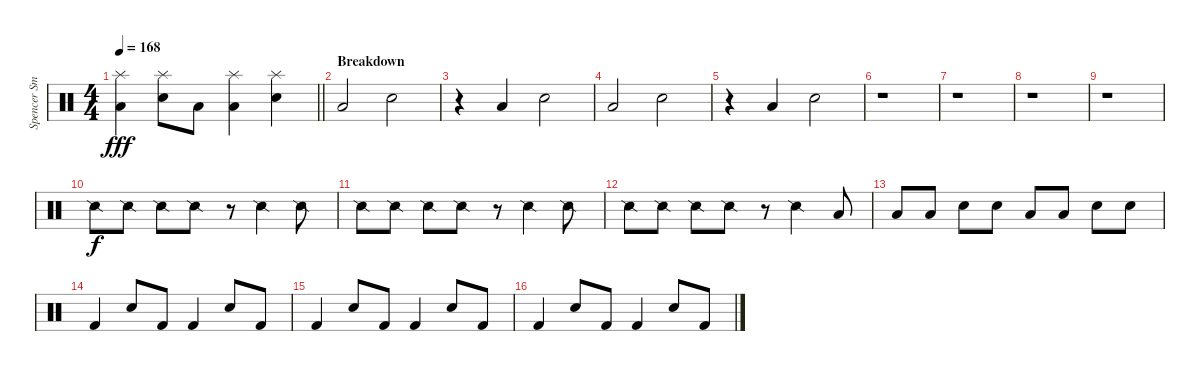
\track ("Spencer Smith" "Spencer Sm") {instrument percussion}
\staff {score}
\articulation defaults
\ts (4 4)
\tempo 168
\clef neutral
\barLineRight lightlight
\ks c
("Splash (hit)" "Low Floor Tom (hit)").4{dy fff} ("Splash (hit)" "Electric Snare (hit)").8 "Low Floor Tom (hit)".8 ("Splash (hit)" "Low Floor Tom (hit)").4 ("Splash (hit)" "Electric Snare (hit)").4 |
\section ("" "Breakdown")
"Low Floor Tom (hit)".2 "Snare (hit) 2".2 |
r.4 "Low Floor Tom (hit)".4 "Snare (hit) 2".2 |
"Low Floor Tom (hit)".2 "Snare (hit) 2".2 |
r.4 "Low Floor Tom (hit)".4 "Snare (hit) 2".2 |
r.1 |
r.1 |
r.1 |
r.1 |
"Snare (side stick) 2".8{dy f} "Snare (side stick) 2".8 "Snare (side stick) 2".8 "Snare (side stick) 2".8 r.8 "Snare (side stick) 2".4 "Snare (side stick) 2".8 |
"Snare (side stick) 2".8 "Snare (side stick) 2".8 "Snare (side stick) 2".8 "Snare (side stick) 2".8 r.8 "Snare (side stick) 2".4 "Snare (side stick) 2".8 |
"Snare (side stick) 2".8 "Snare (side stick) 2".8 "Snare (side stick) 2".8 "Snare (side stick) 2".8 r.8 "Snare (side stick) 2".4 "Low Floor Tom (hit)".8 |
"Low Floor Tom (hit)".8 "Low Floor Tom (hit)".8 "Electric Snare (hit)".8 "Electric Snare (hit)".8 "Low Floor Tom (hit)".8 "Low Floor Tom (hit)".8 "Electric Snare (hit)".8 "Electric Snare (hit)".8 |
"Kick (hit) 2".4 "Electric Snare (hit)".8 "Kick (hit) 2".8 "Kick (hit) 2".4 "Electric Snare (hit)".8 "Kick (hit) 2".8 |
"Kick (hit) 2".4 "Electric Snare (hit)".8 "Kick (hit) 2".8 "Kick (hit) 2".4 "Electric Snare (hit)".8 "Kick (hit) 2".8 |
"Kick (hit) 2".4 "Electric Snare (hit)".8 "Kick (hit) 2".8 "Kick (hit) 2".4 "Electric Snare (hit)".8 "Kick (hit) 2".8
